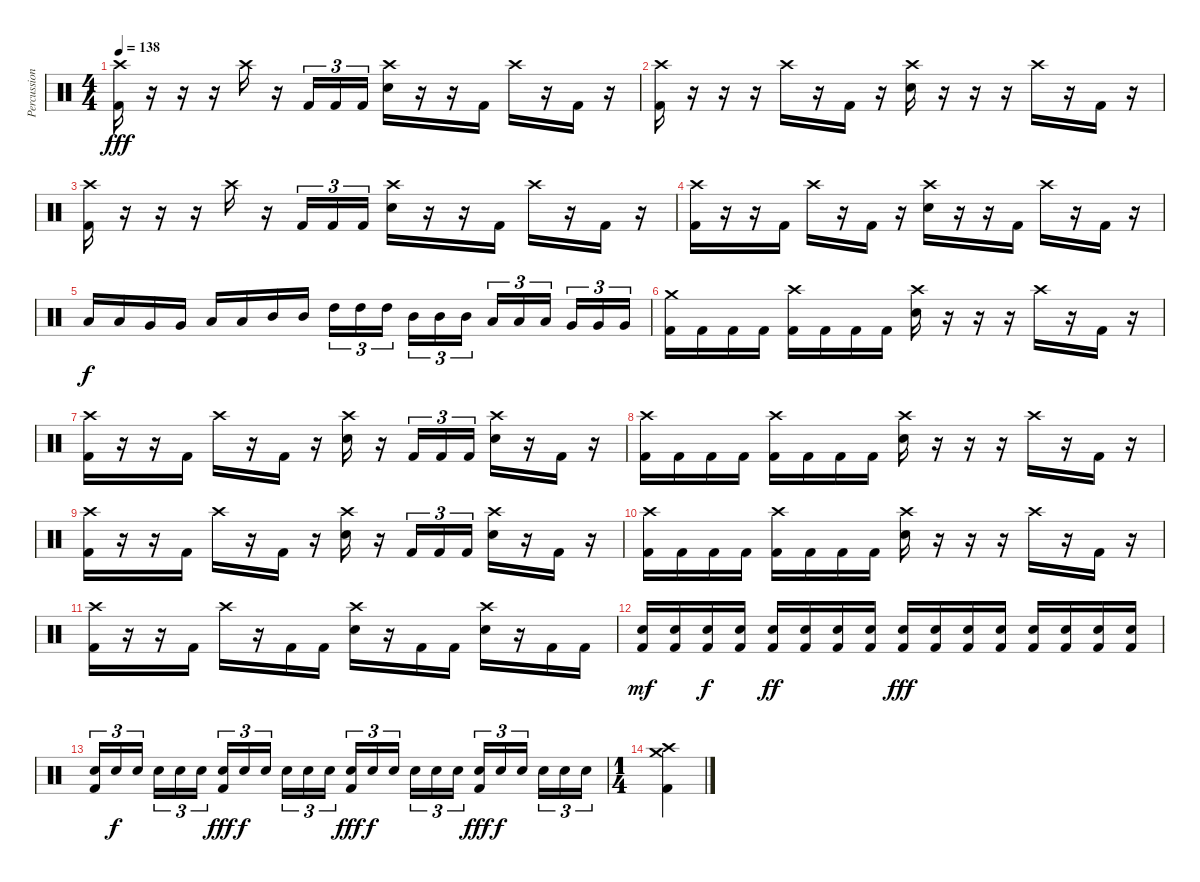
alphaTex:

\track ("Percussion" "Percussion") {instrument percussion}
\staff {score}
\articulation defaults
\ts (4 4)
\tempo 138
\clef neutral
\ks c
("Crash high (hit)" "Kick (hit) 2").16{dy fff} r.16 r.16 r.16 "Crash high (hit)".16 r.16 "Kick (hit) 2".16{tu (3 2)} "Kick (hit) 2".16{tu (3 2)} "Kick (hit) 2".16{tu (3 2)} ("Crash high (hit)" "Electric Snare (hit)").16 r.16 r.16 "Kick (hit) 2".16 "Crash high (hit)".16 r.16 "Kick (hit) 2".16 r.16 |
("Crash high (hit)" "Kick (hit) 2").16 r.16 r.16 r.16 "Crash high (hit)".16 r.16 "Kick (hit) 2".16 r.16 ("Crash high (hit)" "Electric Snare (hit)").16 r.16 r.16 r.16 "Crash high (hit)".16 r.16 "Kick (hit) 2".16 r.16 |
("Crash high (hit)" "Kick (hit) 2").16 r.16 r.16 r.16 "Crash high (hit)".16 r.16 "Kick (hit) 2".16{tu (3 2)} "Kick (hit) 2".16{tu (3 2)} "Kick (hit) 2".16{tu (3 2)} ("Crash high (hit)" "Electric Snare (hit)").16 r.16 r.16 "Kick (hit) 2".16 "Crash high (hit)".16 r.16 "Kick (hit) 2".16 r.16 |
("Crash high (hit)" "Kick (hit) 2").16 r.16 r.16 "Kick (hit) 2".16 "Crash high (hit)".16 r.16 "Kick (hit) 2".16 r.16 ("Crash high (hit)" "Electric Snare (hit)").16 r.16 r.16 "Kick (hit) 2".16 "Crash high (hit)".16 r.16 "Kick (hit) 2".16 r.16 |
"Low Floor Tom (hit)".16{dy f} "Low Floor Tom (hit)".16 "Very Low Tom (hit)".16 "Very Low Tom (hit)".16 "Low Tom (hit)".16 "Low Tom (hit)".16 "Mid Tom (hit)".16 "Mid Tom (hit)".16 "High Tom (hit)".16{tu (3 2)} "High Tom (hit)".16{tu (3 2)} "High Tom (hit)".16{tu (3 2) beam splitsecondary} "Mid Tom (hit)".16{tu (3 2)} "Mid Tom (hit)".16{tu (3 2)} "Mid Tom (hit)".16{tu (3 2)} "Low Tom (hit)".16{tu (3 2)} "Low Tom (hit)".16{tu (3 2)} "Low Tom (hit)".16{tu (3 2) beam splitsecondary} "Very Low Tom (hit)".16{tu (3 2)} "Very Low Tom (hit)".16{tu (3 2)} "Very Low Tom (hit)".16{tu (3 2)} |
("Crash medium (hit)" "Kick (hit) 2").16 "Kick (hit) 2".16 "Kick (hit) 2".16 "Kick (hit) 2".16 ("Crash high (hit)" "Kick (hit) 2").16 "Kick (hit) 2".16 "Kick (hit) 2".16 "Kick (hit) 2".16 ("Crash high (hit)" "Electric Snare (hit)").16 r.16 r.16 r.16 "Crash high (hit)".16 r.16 "Kick (hit) 2".16 r.16 |
("Crash high (hit)" "Kick (hit) 2").16 r.16 r.16 "Kick (hit) 2".16 "Crash high (hit)".16 r.16 "Kick (hit) 2".16 r.16 ("Crash high (hit)" "Electric Snare (hit)").16 r.16 "Kick (hit) 2".16{tu (3 2)} "Kick (hit) 2".16{tu (3 2)} "Kick (hit) 2".16{tu (3 2)} ("Crash high (hit)" "Electric Snare (hit)").16 r.16 "Kick (hit) 2".16 r.16 |
("Crash high (hit)" "Kick (hit) 2").16 "Kick (hit) 2".16 "Kick (hit) 2".16 "Kick (hit) 2".16 ("Crash high (hit)" "Kick (hit) 2").16 "Kick (hit) 2".16 "Kick (hit) 2".16 "Kick (hit) 2".16 ("Crash high (hit)" "Electric Snare (hit)").16 r.16 r.16 r.16 "Crash high (hit)".16 r.16 "Kick (hit) 2".16 r.16 |
("Crash high (hit)" "Kick (hit) 2").16 r.16 r.16 "Kick (hit) 2".16 "Crash high (hit)".16 r.16 "Kick (hit) 2".16 r.16 ("Crash high (hit)" "Electric Snare (hit)").16 r.16 "Kick (hit) 2".16{tu (3 2)} "Kick (hit) 2".16{tu (3 2)} "Kick (hit) 2".16{tu (3 2)} ("Crash high (hit)" "Electric Snare (hit)").16 r.16 "Kick (hit) 2".16 r.16 |
("Crash high (hit)" "Kick (hit) 2").16 "Kick (hit) 2".16 "Kick (hit) 2".16 "Kick (hit) 2".16 ("Crash high (hit)" "Kick (hit) 2").16 "Kick (hit) 2".16 "Kick (hit) 2".16 "Kick (hit) 2".16 ("Crash high (hit)" "Electric Snare (hit)").16 r.16 r.16 r.16 "Crash high (hit)".16 r.16 "Kick (hit) 2".16 r.16 |
("Crash high (hit)" "Kick (hit) 2").16 r.16 r.16 "Kick (hit) 2".16 "Crash high (hit)".16 r.16 "Kick (hit) 2".16 "Kick (hit) 2".16 ("Crash high (hit)" "Electric Snare (hit)").16 r.16 "Kick (hit) 2".16 "Kick (hit) 2".16 ("Crash high (hit)" "Electric Snare (hit)").16 r.16 "Kick (hit) 2".16 "Kick (hit) 2".16 |
("Electric Snare (hit)" "Kick (hit) 2").16{dy mf} ("Electric Snare (hit)" "Kick (hit) 2").16 ("Electric Snare (hit)" "Kick (hit) 2").16{dy f} ("Electric Snare (hit)" "Kick (hit) 2").16 ("Electric Snare (hit)" "Kick (hit) 2").16{dy ff} ("Electric Snare (hit)" "Kick (hit) 2").16 ("Electric Snare (hit)" "Kick (hit) 2").16 ("Electric Snare (hit)" "Kick (hit) 2").16 ("Electric Snare (hit)" "Kick (hit) 2").16{dy fff} ("Electric Snare (hit)" "Kick (hit) 2").16 ("Electric Snare (hit)" "Kick (hit) 2").16 ("Electric Snare (hit)" "Kick (hit) 2").16 ("Electric Snare (hit)" "Kick (hit) 2").16 ("Electric Snare (hit)" "Kick (hit) 2").16 ("Electric Snare (hit)" "Kick (hit) 2").16 ("Electric Snare (hit)" "Kick (hit) 2").16 |
("Electric Snare (hit)" "Kick (hit) 2").16{tu (3 2)} "Electric Snare (hit)".16{tu (3 2) dy f} "Electric Snare (hit)".16{tu (3 2) beam splitsecondary} "Electric Snare (hit)".16{tu (3 2)} "Electric Snare (hit)".16{tu (3 2)} "Electric Snare (hit)".16{tu (3 2)} ("Electric Snare (hit)" "Kick (hit) 2").16{tu (3 2) dy fff} "Electric Snare (hit)".16{tu (3 2) dy f} "Electric Snare (hit)".16{tu (3 2) beam splitsecondary} "Electric Snare (hit)".16{tu (3 2)} "Electric Snare (hit)".16{tu (3 2)} "Electric Snare (hit)".16{tu (3 2)} ("Electric Snare (hit)" "Kick (hit) 2").16{tu (3 2) dy fff} "Electric Snare (hit)".16{tu (3 2) dy f} "Electric Snare (hit)".16{tu (3 2) beam splitsecondary} "Electric Snare (hit)".16{tu (3 2)} "Electric Snare (hit)".16{tu (3 2)} "Electric Snare (hit)".16{tu (3 2)} ("Electric Snare (hit)" "Kick (hit) 2").16{tu (3 2) dy fff} "Electric Snare (hit)".16{tu (3 2) dy f} "Electric Snare (hit)".16{tu (3 2) beam splitsecondary} "Electric Snare (hit)".16{tu (3 2)} "Electric Snare (hit)".16{tu (3 2)} "Electric Snare (hit)".16{tu (3 2)} |
\ts (1 4)
("Crash high (hit)" "Crash medium (hit)" "Kick (hit) 2").4
